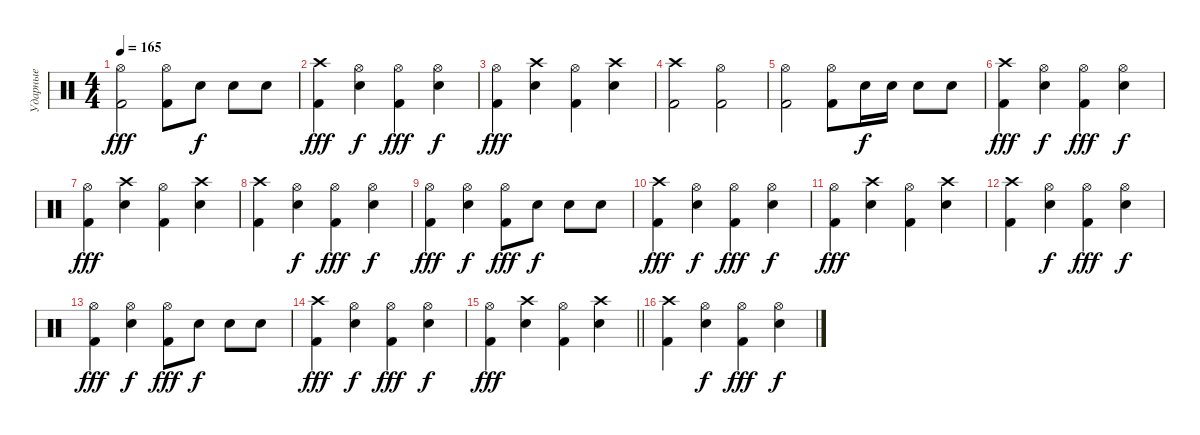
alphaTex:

\track ("Ударные" "Ударные") {instrument percussion}
\staff {score}
\articulation defaults
\ts (4 4)
\tempo 165
\clef neutral
\ks c
("Kick (hit) 2" "Hi-Hat (open)").2{dy fff} ("Kick (hit) 2" "Hi-Hat (open)").8 "Snare (hit) 2".8{dy f} "Snare (hit) 2".8 "Snare (hit) 2".8 |
("Kick (hit) 2" "Crash high (hit)").4{dy fff} ("Snare (hit) 2" "Hi-Hat (open)").4{dy f} ("Kick (hit) 2" "Hi-Hat (open)").4{dy fff} ("Snare (hit) 2" "Hi-Hat (open)").4{dy f} |
("Kick (hit) 2" "Hi-Hat (open)").4{dy fff} ("Snare (hit) 2" "Crash high (hit)").4 ("Kick (hit) 2" "Hi-Hat (open)").4 ("Snare (hit) 2" "Crash high (hit)").4 |
("Kick (hit) 2" "Crash high (hit)").2 ("Kick (hit) 2" "Hi-Hat (open)").2 |
("Kick (hit) 2" "Hi-Hat (open)").2 ("Kick (hit) 2" "Hi-Hat (open)").8 "Snare (hit) 2".16{dy f} "Snare (hit) 2".16 "Snare (hit) 2".8 "Snare (hit) 2".8 |
("Kick (hit) 2" "Crash high (hit)").4{dy fff} ("Snare (hit) 2" "Hi-Hat (open)").4{dy f} ("Kick (hit) 2" "Hi-Hat (open)").4{dy fff} ("Snare (hit) 2" "Hi-Hat (open)").4{dy f} |
("Kick (hit) 2" "Hi-Hat (open)").4{dy fff} ("Snare (hit) 2" "Crash high (hit)").4 ("Kick (hit) 2" "Hi-Hat (open)").4 ("Snare (hit) 2" "Crash high (hit)").4 |
("Kick (hit) 2" "Crash high (hit)").4 ("Snare (hit) 2" "Hi-Hat (open)").4{dy f} ("Kick (hit) 2" "Hi-Hat (open)").4{dy fff} ("Snare (hit) 2" "Hi-Hat (open)").4{dy f} |
("Kick (hit) 2" "Hi-Hat (open)").4{dy fff} ("Snare (hit) 2" "Hi-Hat (open)").4{dy f} ("Kick (hit) 2" "Hi-Hat (open)").8{dy fff} "Snare (hit) 2".8{dy f} "Snare (hit) 2".8 "Snare (hit) 2".8 |
("Kick (hit) 2" "Crash high (hit)").4{dy fff} ("Snare (hit) 2" "Hi-Hat (open)").4{dy f} ("Kick (hit) 2" "Hi-Hat (open)").4{dy fff} ("Snare (hit) 2" "Hi-Hat (open)").4{dy f} |
("Kick (hit) 2" "Hi-Hat (open)").4{dy fff} ("Snare (hit) 2" "Crash high (hit)").4 ("Kick (hit) 2" "Hi-Hat (open)").4 ("Snare (hit) 2" "Crash high (hit)").4 |
("Kick (hit) 2" "Crash high (hit)").4 ("Snare (hit) 2" "Hi-Hat (open)").4{dy f} ("Kick (hit) 2" "Hi-Hat (open)").4{dy fff} ("Snare (hit) 2" "Hi-Hat (open)").4{dy f} |
("Kick (hit) 2" "Hi-Hat (open)").4{dy fff} ("Snare (hit) 2" "Hi-Hat (open)").4{dy f} ("Kick (hit) 2" "Hi-Hat (open)").8{dy fff} "Snare (hit) 2".8{dy f} "Snare (hit) 2".8 "Snare (hit) 2".8 |
("Kick (hit) 2" "Crash high (hit)").4{dy fff} ("Snare (hit) 2" "Hi-Hat (open)").4{dy f} ("Kick (hit) 2" "Hi-Hat (open)").4{dy fff} ("Snare (hit) 2" "Hi-Hat (open)").4{dy f} |
\barLineRight lightlight
("Kick (hit) 2" "Hi-Hat (open)").4{dy fff} ("Snare (hit) 2" "Crash high (hit)").4 ("Kick (hit) 2" "Hi-Hat (open)").4 ("Snare (hit) 2" "Crash high (hit)").4 |
("Kick (hit) 2" "Crash high (hit)").4 ("Snare (hit) 2" "Hi-Hat (open)").4{dy f} ("Kick (hit) 2" "Hi-Hat (open)").4{dy fff} ("Snare (hit) 2" "Hi-Hat (open)").4{dy f}
